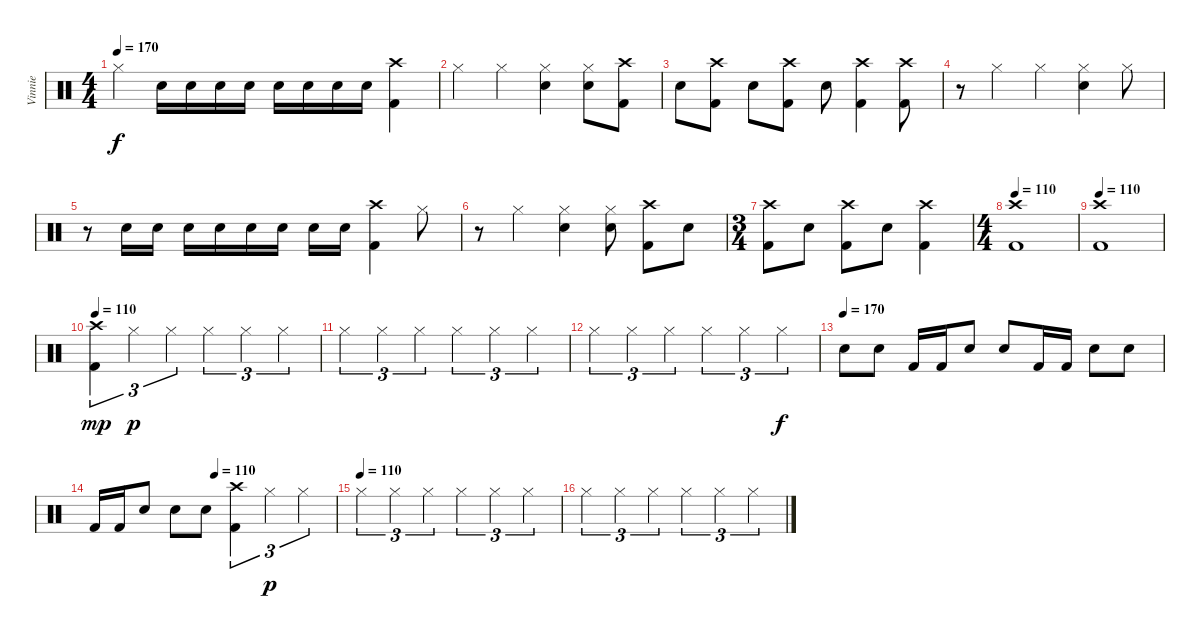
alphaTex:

\track ("Vinnie" "Vinnie") {instrument percussion}
\staff {score}
\articulation defaults
\ts (4 4)
\tempo 170
\clef neutral
\ks c "Hi-Hat (closed)".4{dy f} "Electric Snare (hit)".16 "Electric Snare (hit)".16 "Electric Snare (hit)".16 "Electric Snare (hit)".16 "Electric Snare (hit)".16 "Electric Snare (hit)".16 "Electric Snare (hit)".16 "Electric Snare (hit)".16
("Crash high (hit)" "Kick (hit) 2").4 |
"Hi-Hat (closed)".4 "Hi-Hat (closed)".4 ("Hi-Hat (closed)" "Electric Snare (hit)").4 ("Hi-Hat (closed)" "Electric Snare (hit)").8 ("Crash high (hit)" "Kick (hit) 2").8 |
"Electric Snare (hit)".8 ("Crash high (hit)" "Kick (hit) 2").8 "Electric Snare (hit)".8 ("Crash high (hit)" "Kick (hit) 2").8 "Electric Snare (hit)".8 ("Crash high (hit)" "Kick (hit) 2").4 ("Crash high (hit)" "Kick (hit) 2").8 |
r.8 "Hi-Hat (closed)".4 "Hi-Hat (closed)".4 ("Hi-Hat (closed)" "Electric Snare (hit)").4 "Hi-Hat (closed)".8 |
r.8 "Electric Snare (hit)".16 "Electric Snare (hit)".16 "Electric Snare (hit)".16 "Electric Snare (hit)".16 "Electric Snare (hit)".16 "Electric Snare (hit)".16 "Electric Snare (hit)".16 "Electric Snare (hit)".16 ("Crash high (hit)" "Kick (hit) 2").4 "Hi-Hat (closed)".8 |
r.8 "Hi-Hat (closed)".4 ("Hi-Hat (closed)" "Electric Snare (hit)").4 ("Hi-Hat (closed)" "Electric Snare (hit)").8 ("Crash high (hit)" "Kick (hit) 2").8 "Electric Snare (hit)".8 |
\ts (3 4)
("Crash high (hit)" "Kick (hit) 2").8 "Electric Snare (hit)".8 ("Crash high (hit)" "Kick (hit) 2").8 "Electric Snare (hit)".8 ("Crash high (hit)" "Kick (hit) 2").4 |
\ts (4 4)
\tempo 110
("Crash high (hit)" "Kick (hit) 2").1 |
\tempo 110
("Crash high (hit)" "Kick (hit) 2").1 |
\tempo 110
("Crash high (hit)" "Kick (hit) 2").4{tu (3 2) dy mp} "Hi-Hat (closed)".4{tu (3 2) dy p} "Hi-Hat (closed)".4{tu (3 2)} "Hi-Hat (closed)".4{tu (3 2)} "Hi-Hat (closed)".4{tu (3 2)} "Hi-Hat (closed)".4{tu (3 2)} |
"Hi-Hat (closed)".4{tu (3 2)} "Hi-Hat (closed)".4{tu (3 2)} "Hi-Hat (closed)".4{tu (3 2)} "Hi-Hat (closed)".4{tu (3 2)} "Hi-Hat (closed)".4{tu (3 2)} "Hi-Hat (closed)".4{tu (3 2)} |
"Hi-Hat (closed)".4{tu (3 2)} "Hi-Hat (closed)".4{tu (3 2)} "Hi-Hat (closed)".4{tu (3 2)} "Hi-Hat (closed)".4{tu (3 2)} "Hi-Hat (closed)".4{tu (3 2)} "Hi-Hat (closed)".4{tu (3 2) dy f} |
\tempo (170)
"Electric Snare (hit)".8 "Electric Snare (hit)".8 "Kick (hit) 2".16 "Kick (hit) 2".16 "Electric Snare (hit)".8 "Electric Snare (hit)".8 "Kick (hit) 2".16 "Kick (hit) 2".16 "Electric Snare (hit)".8 "Electric Snare (hit)".8 |
\tempo (110 0.5)
"Kick (hit) 2".16 "Kick (hit) 2".16 "Electric Snare (hit)".8 "Electric Snare (hit)".8 "Electric Snare (hit)".8 ("Crash high (hit)" "Kick (hit) 2").4{tu (3 2)} "Hi-Hat (closed)".4{tu (3 2) dy p} "Hi-Hat (closed)".4{tu (3 2)} |
\tempo (110)
"Hi-Hat (closed)".4{tu (3 2)} "Hi-Hat (closed)".4{tu (3 2)} "Hi-Hat (closed)".4{tu (3 2)} "Hi-Hat (closed)".4{tu (3 2)} "Hi-Hat (closed)".4{tu (3 2)} "Hi-Hat (closed)".4{tu (3 2)} |
"Hi-Hat (closed)".4{tu (3 2)} "Hi-Hat (closed)".4{tu (3 2)} "Hi-Hat (closed)".4{tu (3 2)} "Hi-Hat (closed)".4{tu (3 2)} "Hi-Hat (closed)".4{tu (3 2)} "Hi-Hat (closed)".4{tu (3 2)}
